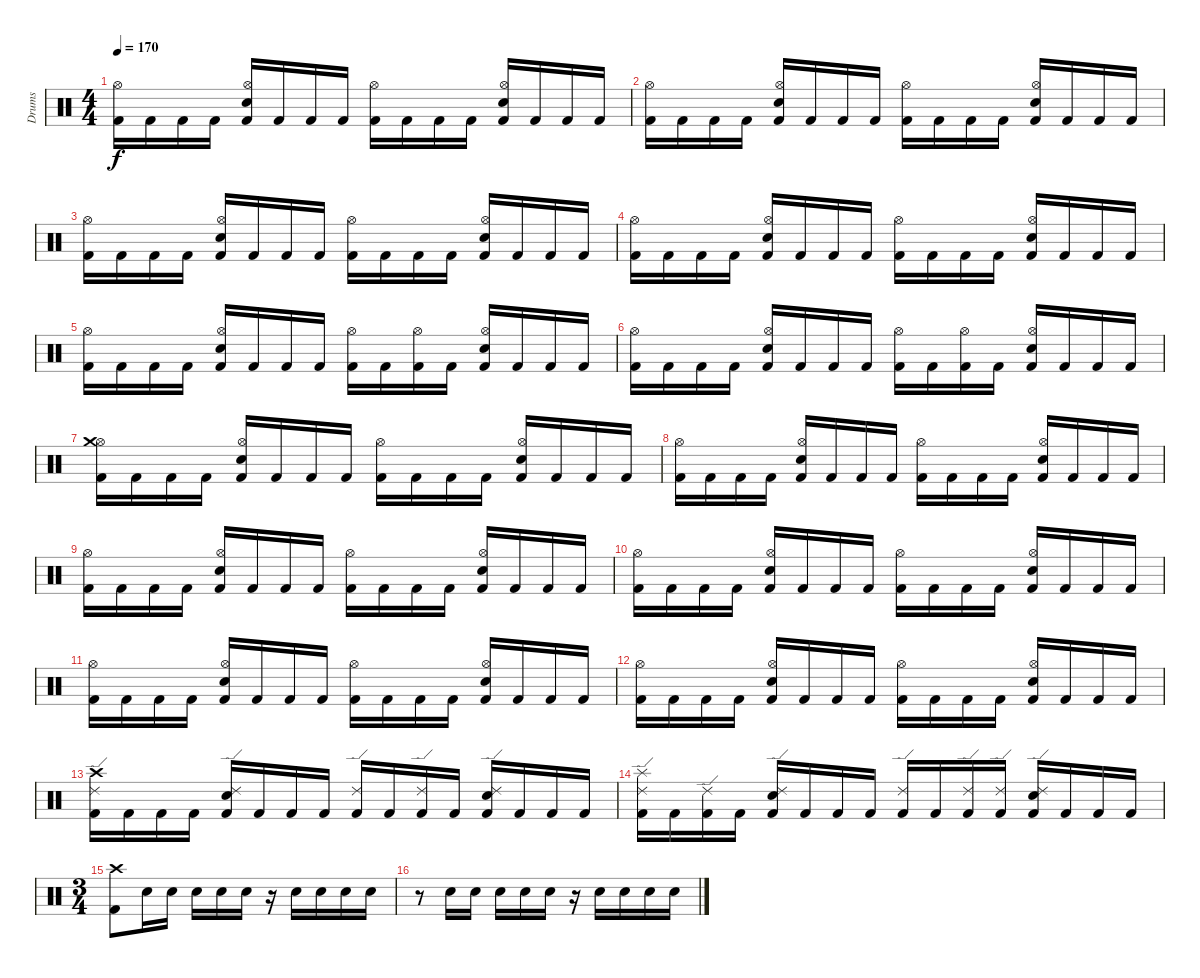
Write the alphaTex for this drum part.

\track ("Drums" "Drums") {instrument percussion}
\staff {score}
\articulation defaults
\ts (4 4)
\tempo 170
\clef neutral
\ks c
("Kick (hit) 2" "Hi-Hat (open)").16{dy f} "Kick (hit) 2".16 "Kick (hit) 2".16 "Kick (hit) 2".16 ("Kick (hit) 2" "Snare (hit) 2" "Hi-Hat (open)").16 "Kick (hit) 2".16 "Kick (hit) 2".16 "Kick (hit) 2".16 ("Kick (hit) 2" "Hi-Hat (open)").16 "Kick (hit) 2".16 "Kick (hit) 2".16 "Kick (hit) 2".16 ("Kick (hit) 2" "Snare (hit) 2" "Hi-Hat (open)").16 "Kick (hit) 2".16 "Kick (hit) 2".16 "Kick (hit) 2".16 |
("Kick (hit) 2" "Hi-Hat (open)").16 "Kick (hit) 2".16 "Kick (hit) 2".16 "Kick (hit) 2".16 ("Kick (hit) 2" "Snare (hit) 2" "Hi-Hat (open)").16 "Kick (hit) 2".16 "Kick (hit) 2".16 "Kick (hit) 2".16 ("Kick (hit) 2" "Hi-Hat (open)").16 "Kick (hit) 2".16 "Kick (hit) 2".16 "Kick (hit) 2".16 ("Kick (hit) 2" "Snare (hit) 2" "Hi-Hat (open)").16 "Kick (hit) 2".16 "Kick (hit) 2".16 "Kick (hit) 2".16 |
("Kick (hit) 2" "Hi-Hat (open)").16 "Kick (hit) 2".16 "Kick (hit) 2".16 "Kick (hit) 2".16 ("Kick (hit) 2" "Snare (hit) 2" "Hi-Hat (open)").16 "Kick (hit) 2".16 "Kick (hit) 2".16 "Kick (hit) 2".16 ("Kick (hit) 2" "Hi-Hat (open)").16 "Kick (hit) 2".16 "Kick (hit) 2".16 "Kick (hit) 2".16 ("Kick (hit) 2" "Snare (hit) 2" "Hi-Hat (open)").16 "Kick (hit) 2".16 "Kick (hit) 2".16 "Kick (hit) 2".16 |
("Kick (hit) 2" "Hi-Hat (open)").16 "Kick (hit) 2".16 "Kick (hit) 2".16 "Kick (hit) 2".16 ("Kick (hit) 2" "Snare (hit) 2" "Hi-Hat (open)").16 "Kick (hit) 2".16 "Kick (hit) 2".16 "Kick (hit) 2".16 ("Kick (hit) 2" "Hi-Hat (open)").16 "Kick (hit) 2".16 "Kick (hit) 2".16 "Kick (hit) 2".16 ("Kick (hit) 2" "Snare (hit) 2" "Hi-Hat (open)").16 "Kick (hit) 2".16 "Kick (hit) 2".16 "Kick (hit) 2".16 |
("Kick (hit) 2" "Hi-Hat (open)").16 "Kick (hit) 2".16 "Kick (hit) 2".16 "Kick (hit) 2".16 ("Kick (hit) 2" "Snare (hit) 2" "Hi-Hat (open)").16 "Kick (hit) 2".16 "Kick (hit) 2".16 "Kick (hit) 2".16 ("Kick (hit) 2" "Hi-Hat (open)").16 "Kick (hit) 2".16 ("Kick (hit) 2" "Hi-Hat (open)").16 "Kick (hit) 2".16 ("Kick (hit) 2" "Snare (hit) 2" "Hi-Hat (open)").16 "Kick (hit) 2".16 "Kick (hit) 2".16 "Kick (hit) 2".16 |
("Kick (hit) 2" "Hi-Hat (open)").16 "Kick (hit) 2".16 "Kick (hit) 2".16 "Kick (hit) 2".16 ("Kick (hit) 2" "Snare (hit) 2" "Hi-Hat (open)").16 "Kick (hit) 2".16 "Kick (hit) 2".16 "Kick (hit) 2".16 ("Kick (hit) 2" "Hi-Hat (open)").16 "Kick (hit) 2".16 ("Kick (hit) 2" "Hi-Hat (open)").16 "Kick (hit) 2".16 ("Kick (hit) 2" "Snare (hit) 2" "Hi-Hat (open)").16 "Kick (hit) 2".16 "Kick (hit) 2".16 "Kick (hit) 2".16 |
("Kick (hit) 2" "Hi-Hat (open)" "Crash medium (hit)").16 "Kick (hit) 2".16 "Kick (hit) 2".16 "Kick (hit) 2".16 ("Kick (hit) 2" "Snare (hit) 2" "Hi-Hat (open)").16 "Kick (hit) 2".16 "Kick (hit) 2".16 "Kick (hit) 2".16 ("Kick (hit) 2" "Hi-Hat (open)").16 "Kick (hit) 2".16 "Kick (hit) 2".16 "Kick (hit) 2".16 ("Kick (hit) 2" "Snare (hit) 2" "Hi-Hat (open)").16 "Kick (hit) 2".16 "Kick (hit) 2".16 "Kick (hit) 2".16 |
("Kick (hit) 2" "Hi-Hat (open)").16 "Kick (hit) 2".16 "Kick (hit) 2".16 "Kick (hit) 2".16 ("Kick (hit) 2" "Snare (hit) 2" "Hi-Hat (open)").16 "Kick (hit) 2".16 "Kick (hit) 2".16 "Kick (hit) 2".16 ("Kick (hit) 2" "Hi-Hat (open)").16 "Kick (hit) 2".16 "Kick (hit) 2".16 "Kick (hit) 2".16 ("Kick (hit) 2" "Snare (hit) 2" "Hi-Hat (open)").16 "Kick (hit) 2".16 "Kick (hit) 2".16 "Kick (hit) 2".16 |
("Kick (hit) 2" "Hi-Hat (open)").16 "Kick (hit) 2".16 "Kick (hit) 2".16 "Kick (hit) 2".16 ("Kick (hit) 2" "Snare (hit) 2" "Hi-Hat (open)").16 "Kick (hit) 2".16 "Kick (hit) 2".16 "Kick (hit) 2".16 ("Kick (hit) 2" "Hi-Hat (open)").16 "Kick (hit) 2".16 "Kick (hit) 2".16 "Kick (hit) 2".16 ("Kick (hit) 2" "Snare (hit) 2" "Hi-Hat (open)").16 "Kick (hit) 2".16 "Kick (hit) 2".16 "Kick (hit) 2".16 |
("Kick (hit) 2" "Hi-Hat (open)").16 "Kick (hit) 2".16 "Kick (hit) 2".16 "Kick (hit) 2".16 ("Kick (hit) 2" "Snare (hit) 2" "Hi-Hat (open)").16 "Kick (hit) 2".16 "Kick (hit) 2".16 "Kick (hit) 2".16 ("Kick (hit) 2" "Hi-Hat (open)").16 "Kick (hit) 2".16 "Kick (hit) 2".16 "Kick (hit) 2".16 ("Kick (hit) 2" "Snare (hit) 2" "Hi-Hat (open)").16 "Kick (hit) 2".16 "Kick (hit) 2".16 "Kick (hit) 2".16 |
("Kick (hit) 2" "Hi-Hat (open)").16 "Kick (hit) 2".16 "Kick (hit) 2".16 "Kick (hit) 2".16 ("Kick (hit) 2" "Snare (hit) 2" "Hi-Hat (open)").16 "Kick (hit) 2".16 "Kick (hit) 2".16 "Kick (hit) 2".16 ("Kick (hit) 2" "Hi-Hat (open)").16 "Kick (hit) 2".16 "Kick (hit) 2".16 "Kick (hit) 2".16 ("Kick (hit) 2" "Snare (hit) 2" "Hi-Hat (open)").16 "Kick (hit) 2".16 "Kick (hit) 2".16 "Kick (hit) 2".16 |
("Kick (hit) 2" "Hi-Hat (open)").16 "Kick (hit) 2".16 "Kick (hit) 2".16 "Kick (hit) 2".16 ("Kick (hit) 2" "Snare (hit) 2" "Hi-Hat (open)").16 "Kick (hit) 2".16 "Kick (hit) 2".16 "Kick (hit) 2".16 ("Kick (hit) 2" "Hi-Hat (open)").16 "Kick (hit) 2".16 "Kick (hit) 2".16 "Kick (hit) 2".16 ("Kick (hit) 2" "Snare (hit) 2" "Hi-Hat (open)").16 "Kick (hit) 2".16 "Kick (hit) 2".16 "Kick (hit) 2".16 |
("Kick (hit) 2" "Ride (edge) 2" "Crash high (hit)").16 "Kick (hit) 2".16 "Kick (hit) 2".16 "Kick (hit) 2".16 ("Kick (hit) 2" "Snare (hit) 2" "Ride (edge) 2").16 "Kick (hit) 2".16 "Kick (hit) 2".16 "Kick (hit) 2".16 ("Kick (hit) 2" "Ride (edge) 2").16 "Kick (hit) 2".16 ("Kick (hit) 2" "Ride (edge) 2").16 "Kick (hit) 2".16 ("Kick (hit) 2" "Snare (hit) 2" "Ride (edge) 2").16 "Kick (hit) 2".16 "Kick (hit) 2".16 "Kick (hit) 2".16 |
("Kick (hit) 2" "Ride (edge) 2" "Splash (hit)").16 "Kick (hit) 2".16 ("Kick (hit) 2" "Ride (edge) 2").16 "Kick (hit) 2".16 ("Kick (hit) 2" "Snare (hit) 2" "Ride (edge) 2").16 "Kick (hit) 2".16 "Kick (hit) 2".16 "Kick (hit) 2".16 ("Kick (hit) 2" "Ride (edge) 2").16 "Kick (hit) 2".16 ("Kick (hit) 2" "Ride (edge) 2").16 ("Kick (hit) 2" "Ride (edge) 2").16 ("Kick (hit) 2" "Snare (hit) 2" "Ride (edge) 2").16 "Kick (hit) 2".16 "Kick (hit) 2".16 "Kick (hit) 2".16 |
\ts (3 4)
\section ("" "")
("Kick (hit) 2" "Crash high (hit)").8 "Snare (hit) 2".16 "Snare (hit) 2".16 "Snare (hit) 2".16 "Snare (hit) 2".16 "Snare (hit) 2".16 r.16 "Snare (hit) 2".16 "Snare (hit) 2".16 "Snare (hit) 2".16 "Snare (hit) 2".16 |
r.8 "Snare (hit) 2".16 "Snare (hit) 2".16 "Snare (hit) 2".16 "Snare (hit) 2".16 "Snare (hit) 2".16 r.16 "Snare (hit) 2".16 "Snare (hit) 2".16 "Snare (hit) 2".16 "Snare (hit) 2".16
